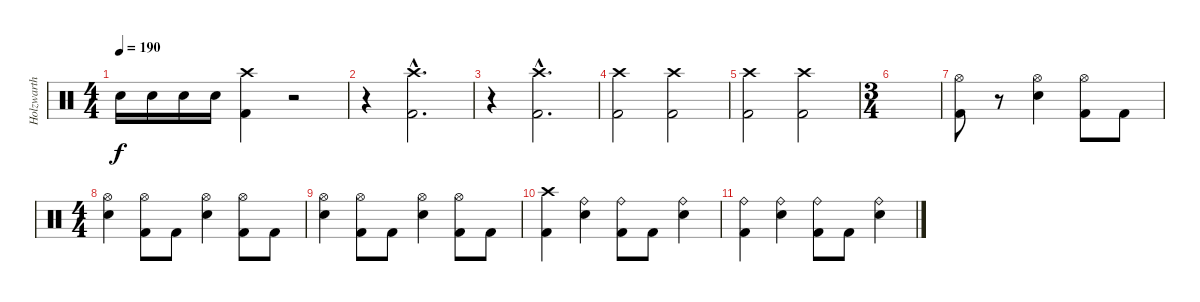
\track ("Holzwarth" "Holzwarth") {instrument percussion}
\staff {score}
\articulation defaults
\ts (4 4)
\tempo 190
\clef neutral
\ks c "Snare (hit) 2".16{dy f} "Snare (hit) 2".16 "Snare (hit) 2".16 "Snare (hit) 2".16
("Crash high (hit)" "Kick (hit) 2").4 r.2 |
r.4 ("Crash high (hit)"{hac} "Kick (hit) 2"{hac}).2{d} |
r.4 ("Crash high (hit)"{hac} "Kick (hit) 2"{hac}).2{d} |
("Crash high (hit)" "Kick (hit) 2").2 ("Crash high (hit)" "Kick (hit) 2").2 |
("Crash high (hit)" "Kick (hit) 2").2 ("Crash high (hit)" "Kick (hit) 2").2 |
\ts (3 4)
|
("Hi-Hat (open)" "Kick (hit) 2").8 r.8 ("Hi-Hat (open)" "Snare (hit) 2").4 ("Hi-Hat (open)" "Kick (hit) 2").8 "Kick (hit) 2".8 |
\ts (4 4)
("Hi-Hat (open)" "Snare (hit) 2").4 ("Hi-Hat (open)" "Kick (hit) 2").8 "Kick (hit) 2".8 ("Hi-Hat (open)" "Snare (hit) 2").4 ("Hi-Hat (open)" "Kick (hit) 2").8 "Kick (hit) 2".8 |
("Hi-Hat (open)" "Snare (hit) 2").4 ("Hi-Hat (open)" "Kick (hit) 2").8 "Kick (hit) 2".8 ("Hi-Hat (open)" "Snare (hit) 2").4 ("Hi-Hat (open)" "Kick (hit) 2").8 "Kick (hit) 2".8 |
("Crash high (hit)" "Kick (hit) 2").4 ("Ride (bell)" "Snare (hit) 2").4 ("Ride (bell)" "Kick (hit) 2").8 "Kick (hit) 2".8 ("Ride (bell)" "Snare (hit) 2").4 |
("Ride (bell)" "Kick (hit) 2").4 ("Ride (bell)" "Snare (hit) 2").4 ("Ride (bell)" "Kick (hit) 2").8 "Kick (hit) 2".8 ("Ride (bell)" "Snare (hit) 2").4
